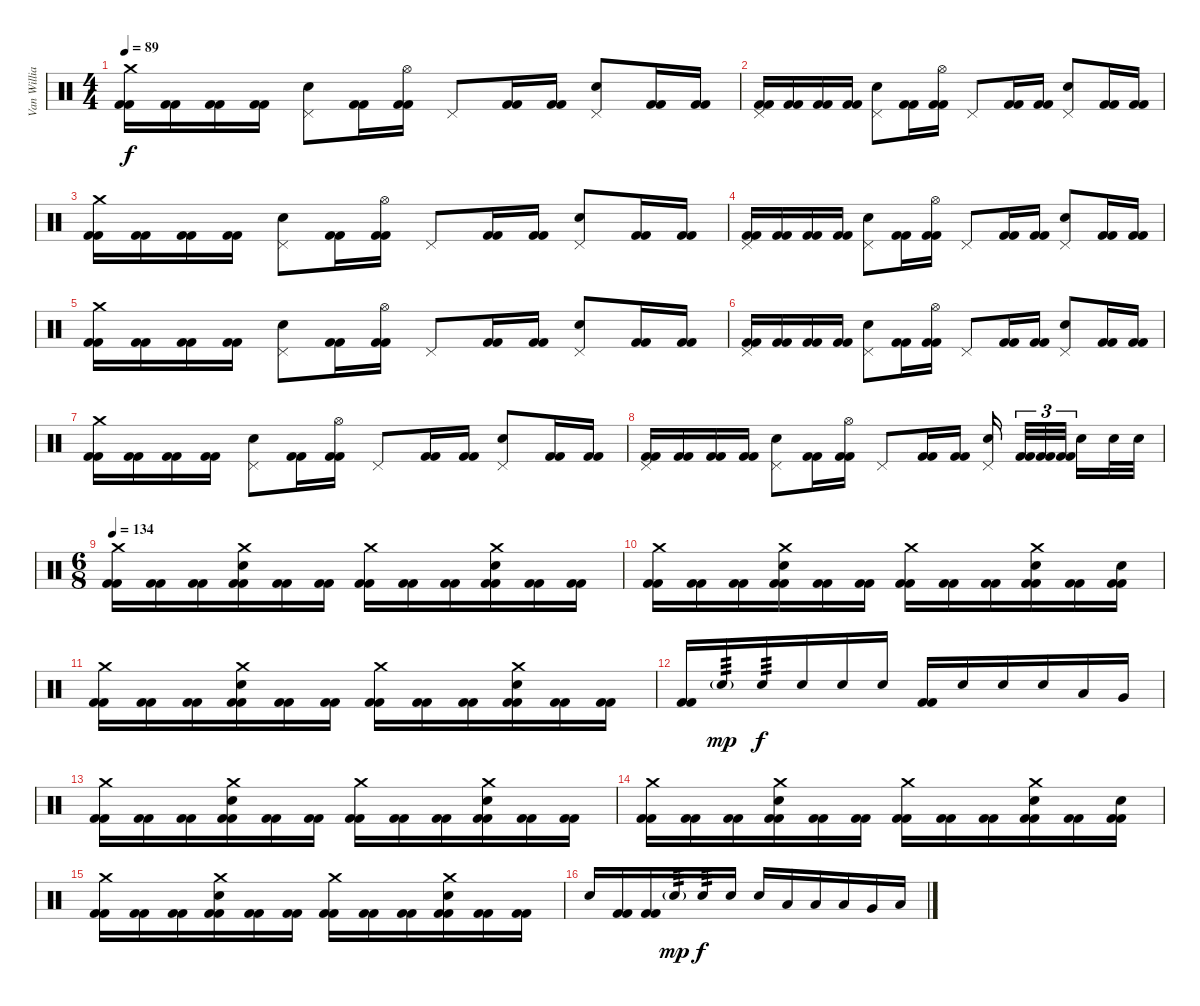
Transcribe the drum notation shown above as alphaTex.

\track ("Van Williams" "Van Willia") {instrument percussion}
\staff {score}
\articulation defaults
\ts (4 4)
\tempo 89
\clef neutral
\ks c
("Crash medium (hit)" "Kick (hit) 2" "Kick (hit) 2").16{dy f} ("Kick (hit) 2" "Kick (hit) 2").16 ("Kick (hit) 2" "Kick (hit) 2").16 ("Kick (hit) 2" "Kick (hit) 2").16 ("Pedal Hi-Hat (hit)" "Electric Snare (hit)").8 ("Kick (hit) 2" "Kick (hit) 2").16 ("Hi-Hat (open)" "Kick (hit) 2" "Kick (hit) 2").16 "Pedal Hi-Hat (hit)".8 ("Kick (hit) 2" "Kick (hit) 2").16 ("Kick (hit) 2" "Kick (hit) 2").16 ("Pedal Hi-Hat (hit)" "Electric Snare (hit)").8 ("Kick (hit) 2" "Kick (hit) 2").16 ("Kick (hit) 2" "Kick (hit) 2").16 |
("Pedal Hi-Hat (hit)" "Kick (hit) 2" "Kick (hit) 2").16 ("Kick (hit) 2" "Kick (hit) 2").16 ("Kick (hit) 2" "Kick (hit) 2").16 ("Kick (hit) 2" "Kick (hit) 2").16 ("Pedal Hi-Hat (hit)" "Electric Snare (hit)").8 ("Kick (hit) 2" "Kick (hit) 2").16 ("Hi-Hat (open)" "Kick (hit) 2" "Kick (hit) 2").16 "Pedal Hi-Hat (hit)".8 ("Kick (hit) 2" "Kick (hit) 2").16 ("Kick (hit) 2" "Kick (hit) 2").16 ("Pedal Hi-Hat (hit)" "Electric Snare (hit)").8 ("Kick (hit) 2" "Kick (hit) 2").16 ("Kick (hit) 2" "Kick (hit) 2").16 |
("Crash medium (hit)" "Kick (hit) 2" "Kick (hit) 2").16 ("Kick (hit) 2" "Kick (hit) 2").16 ("Kick (hit) 2" "Kick (hit) 2").16 ("Kick (hit) 2" "Kick (hit) 2").16 ("Pedal Hi-Hat (hit)" "Electric Snare (hit)").8 ("Kick (hit) 2" "Kick (hit) 2").16 ("Hi-Hat (open)" "Kick (hit) 2" "Kick (hit) 2").16 "Pedal Hi-Hat (hit)".8 ("Kick (hit) 2" "Kick (hit) 2").16 ("Kick (hit) 2" "Kick (hit) 2").16 ("Pedal Hi-Hat (hit)" "Electric Snare (hit)").8 ("Kick (hit) 2" "Kick (hit) 2").16 ("Kick (hit) 2" "Kick (hit) 2").16 |
("Pedal Hi-Hat (hit)" "Kick (hit) 2" "Kick (hit) 2").16 ("Kick (hit) 2" "Kick (hit) 2").16 ("Kick (hit) 2" "Kick (hit) 2").16 ("Kick (hit) 2" "Kick (hit) 2").16 ("Pedal Hi-Hat (hit)" "Electric Snare (hit)").8 ("Kick (hit) 2" "Kick (hit) 2").16 ("Hi-Hat (open)" "Kick (hit) 2" "Kick (hit) 2").16 "Pedal Hi-Hat (hit)".8 ("Kick (hit) 2" "Kick (hit) 2").16 ("Kick (hit) 2" "Kick (hit) 2").16 ("Pedal Hi-Hat (hit)" "Electric Snare (hit)").8 ("Kick (hit) 2" "Kick (hit) 2").16 ("Kick (hit) 2" "Kick (hit) 2").16 |
("Crash medium (hit)" "Kick (hit) 2" "Kick (hit) 2").16 ("Kick (hit) 2" "Kick (hit) 2").16 ("Kick (hit) 2" "Kick (hit) 2").16 ("Kick (hit) 2" "Kick (hit) 2").16 ("Pedal Hi-Hat (hit)" "Electric Snare (hit)").8 ("Kick (hit) 2" "Kick (hit) 2").16 ("Hi-Hat (open)" "Kick (hit) 2" "Kick (hit) 2").16 "Pedal Hi-Hat (hit)".8 ("Kick (hit) 2" "Kick (hit) 2").16 ("Kick (hit) 2" "Kick (hit) 2").16 ("Pedal Hi-Hat (hit)" "Electric Snare (hit)").8 ("Kick (hit) 2" "Kick (hit) 2").16 ("Kick (hit) 2" "Kick (hit) 2").16 |
("Pedal Hi-Hat (hit)" "Kick (hit) 2" "Kick (hit) 2").16 ("Kick (hit) 2" "Kick (hit) 2").16 ("Kick (hit) 2" "Kick (hit) 2").16 ("Kick (hit) 2" "Kick (hit) 2").16 ("Pedal Hi-Hat (hit)" "Electric Snare (hit)").8 ("Kick (hit) 2" "Kick (hit) 2").16 ("Hi-Hat (open)" "Kick (hit) 2" "Kick (hit) 2").16 "Pedal Hi-Hat (hit)".8 ("Kick (hit) 2" "Kick (hit) 2").16 ("Kick (hit) 2" "Kick (hit) 2").16 ("Pedal Hi-Hat (hit)" "Electric Snare (hit)").8 ("Kick (hit) 2" "Kick (hit) 2").16 ("Kick (hit) 2" "Kick (hit) 2").16 |
("Crash medium (hit)" "Kick (hit) 2" "Kick (hit) 2").16 ("Kick (hit) 2" "Kick (hit) 2").16 ("Kick (hit) 2" "Kick (hit) 2").16 ("Kick (hit) 2" "Kick (hit) 2").16 ("Pedal Hi-Hat (hit)" "Electric Snare (hit)").8 ("Kick (hit) 2" "Kick (hit) 2").16 ("Hi-Hat (open)" "Kick (hit) 2" "Kick (hit) 2").16 "Pedal Hi-Hat (hit)".8 ("Kick (hit) 2" "Kick (hit) 2").16 ("Kick (hit) 2" "Kick (hit) 2").16 ("Pedal Hi-Hat (hit)" "Electric Snare (hit)").8 ("Kick (hit) 2" "Kick (hit) 2").16 ("Kick (hit) 2" "Kick (hit) 2").16 |
("Pedal Hi-Hat (hit)" "Kick (hit) 2" "Kick (hit) 2").16 ("Kick (hit) 2" "Kick (hit) 2").16 ("Kick (hit) 2" "Kick (hit) 2").16 ("Kick (hit) 2" "Kick (hit) 2").16 ("Pedal Hi-Hat (hit)" "Electric Snare (hit)").8 ("Kick (hit) 2" "Kick (hit) 2").16 ("Hi-Hat (open)" "Kick (hit) 2" "Kick (hit) 2").16 "Pedal Hi-Hat (hit)".8 ("Kick (hit) 2" "Kick (hit) 2").16 ("Kick (hit) 2" "Kick (hit) 2").16 ("Pedal Hi-Hat (hit)" "Electric Snare (hit)").16{beam splitsecondary} ("Kick (hit) 2" "Kick (hit) 2").32{tu (3 2)} ("Kick (hit) 2" "Kick (hit) 2").32{tu (3 2)} ("Kick (hit) 2" "Kick (hit) 2").32{tu (3 2) beam splitsecondary} "Electric Snare (hit)".16 "Electric Snare (hit)".32 "Electric Snare (hit)".32 |
\ts (6 8)
\tempo 134
("Crash medium (hit)" "Kick (hit) 2" "Kick (hit) 2").16 ("Kick (hit) 2" "Kick (hit) 2").16 ("Kick (hit) 2" "Kick (hit) 2").16 ("Crash medium (hit)" "Electric Snare (hit)" "Kick (hit) 2" "Kick (hit) 2").16 ("Kick (hit) 2" "Kick (hit) 2").16 ("Kick (hit) 2" "Kick (hit) 2").16 ("Crash medium (hit)" "Kick (hit) 2" "Kick (hit) 2").16 ("Kick (hit) 2" "Kick (hit) 2").16 ("Kick (hit) 2" "Kick (hit) 2").16 ("Crash medium (hit)" "Electric Snare (hit)" "Kick (hit) 2" "Kick (hit) 2").16 ("Kick (hit) 2" "Kick (hit) 2").16 ("Kick (hit) 2" "Kick (hit) 2").16 |
("Crash medium (hit)" "Kick (hit) 2" "Kick (hit) 2").16 ("Kick (hit) 2" "Kick (hit) 2").16 ("Kick (hit) 2" "Kick (hit) 2").16 ("Crash medium (hit)" "Electric Snare (hit)" "Kick (hit) 2" "Kick (hit) 2").16 ("Kick (hit) 2" "Kick (hit) 2").16 ("Kick (hit) 2" "Kick (hit) 2").16 ("Crash medium (hit)" "Kick (hit) 2" "Kick (hit) 2").16 ("Kick (hit) 2" "Kick (hit) 2").16 ("Kick (hit) 2" "Kick (hit) 2").16 ("Crash medium (hit)" "Electric Snare (hit)" "Kick (hit) 2" "Kick (hit) 2").16 ("Kick (hit) 2" "Kick (hit) 2").16 ("Electric Snare (hit)" "Kick (hit) 2" "Kick (hit) 2").16 |
("Crash medium (hit)" "Kick (hit) 2" "Kick (hit) 2").16 ("Kick (hit) 2" "Kick (hit) 2").16 ("Kick (hit) 2" "Kick (hit) 2").16 ("Crash medium (hit)" "Electric Snare (hit)" "Kick (hit) 2" "Kick (hit) 2").16 ("Kick (hit) 2" "Kick (hit) 2").16 ("Kick (hit) 2" "Kick (hit) 2").16 ("Crash medium (hit)" "Kick (hit) 2" "Kick (hit) 2").16 ("Kick (hit) 2" "Kick (hit) 2").16 ("Kick (hit) 2" "Kick (hit) 2").16 ("Crash medium (hit)" "Electric Snare (hit)" "Kick (hit) 2" "Kick (hit) 2").16 ("Kick (hit) 2" "Kick (hit) 2").16 ("Kick (hit) 2" "Kick (hit) 2").16 |
("Kick (hit) 2" "Kick (hit) 2").16 "Electric Snare (hit)"{g}.16{tp 3 dy mp} "Electric Snare (hit)".16{tp 3 dy f} "Electric Snare (hit)".16 "Electric Snare (hit)".16 "Electric Snare (hit)".16 ("Kick (hit) 2" "Kick (hit) 2").16 "Electric Snare (hit)".16 "Electric Snare (hit)".16 "Electric Snare (hit)".16 "Low Tom (hit)".16 "Very Low Tom (hit)".16 |
("Crash medium (hit)" "Kick (hit) 2" "Kick (hit) 2").16 ("Kick (hit) 2" "Kick (hit) 2").16 ("Kick (hit) 2" "Kick (hit) 2").16 ("Crash medium (hit)" "Electric Snare (hit)" "Kick (hit) 2" "Kick (hit) 2").16 ("Kick (hit) 2" "Kick (hit) 2").16 ("Kick (hit) 2" "Kick (hit) 2").16 ("Crash medium (hit)" "Kick (hit) 2" "Kick (hit) 2").16 ("Kick (hit) 2" "Kick (hit) 2").16 ("Kick (hit) 2" "Kick (hit) 2").16 ("Crash medium (hit)" "Electric Snare (hit)" "Kick (hit) 2" "Kick (hit) 2").16 ("Kick (hit) 2" "Kick (hit) 2").16 ("Kick (hit) 2" "Kick (hit) 2").16 |
("Crash medium (hit)" "Kick (hit) 2" "Kick (hit) 2").16 ("Kick (hit) 2" "Kick (hit) 2").16 ("Kick (hit) 2" "Kick (hit) 2").16 ("Crash medium (hit)" "Electric Snare (hit)" "Kick (hit) 2" "Kick (hit) 2").16 ("Kick (hit) 2" "Kick (hit) 2").16 ("Kick (hit) 2" "Kick (hit) 2").16 ("Crash medium (hit)" "Kick (hit) 2" "Kick (hit) 2").16 ("Kick (hit) 2" "Kick (hit) 2").16 ("Kick (hit) 2" "Kick (hit) 2").16 ("Crash medium (hit)" "Electric Snare (hit)" "Kick (hit) 2" "Kick (hit) 2").16 ("Kick (hit) 2" "Kick (hit) 2").16 ("Electric Snare (hit)" "Kick (hit) 2" "Kick (hit) 2").16 |
("Crash medium (hit)" "Kick (hit) 2" "Kick (hit) 2").16 ("Kick (hit) 2" "Kick (hit) 2").16 ("Kick (hit) 2" "Kick (hit) 2").16 ("Crash medium (hit)" "Electric Snare (hit)" "Kick (hit) 2" "Kick (hit) 2").16 ("Kick (hit) 2" "Kick (hit) 2").16 ("Kick (hit) 2" "Kick (hit) 2").16 ("Crash medium (hit)" "Kick (hit) 2" "Kick (hit) 2").16 ("Kick (hit) 2" "Kick (hit) 2").16 ("Kick (hit) 2" "Kick (hit) 2").16 ("Crash medium (hit)" "Electric Snare (hit)" "Kick (hit) 2" "Kick (hit) 2").16 ("Kick (hit) 2" "Kick (hit) 2").16 ("Kick (hit) 2" "Kick (hit) 2").16 |
"Electric Snare (hit)".16 ("Kick (hit) 2" "Kick (hit) 2").16 ("Kick (hit) 2" "Kick (hit) 2").16 "Electric Snare (hit)"{g}.16{tp 3 dy mp} "Electric Snare (hit)".16{tp 3 dy f} "Electric Snare (hit)".16 "Electric Snare (hit)".16 "Low Tom (hit)".16 "Low Tom (hit)".16 "Low Tom (hit)".16 "Very Low Tom (hit)".16 "Low Floor Tom (hit)".16
